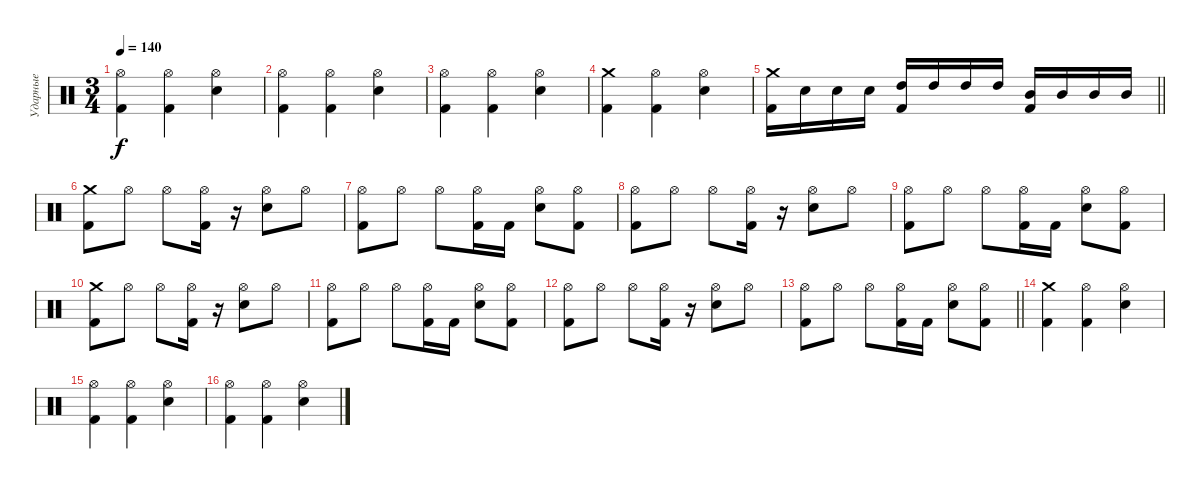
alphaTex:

\track ("Ударные" "Ударные") {instrument percussion}
\staff {score}
\articulation defaults
\ts (3 4)
\tempo 140
\clef neutral
\ks c
("Kick (hit) 2" "Hi-Hat (open)").4{dy f} ("Kick (hit) 2" "Hi-Hat (open)").4 ("Hi-Hat (open)" "Electric Snare (hit)").4 |
("Kick (hit) 2" "Hi-Hat (open)").4 ("Kick (hit) 2" "Hi-Hat (open)").4 ("Hi-Hat (open)" "Electric Snare (hit)").4 |
("Kick (hit) 2" "Hi-Hat (open)").4 ("Kick (hit) 2" "Hi-Hat (open)").4 ("Hi-Hat (open)" "Electric Snare (hit)").4 |
("Kick (hit) 2" "Crash medium (hit)").4 ("Kick (hit) 2" "Hi-Hat (open)").4 ("Hi-Hat (open)" "Electric Snare (hit)").4 |
\barLineRight lightlight
("Kick (hit) 2" "Crash medium (hit)").16 "Electric Snare (hit)".16 "Electric Snare (hit)".16 "Electric Snare (hit)".16 ("Kick (hit) 2" "High Tom (hit)").16 "High Tom (hit)".16 "High Tom (hit)".16 "High Tom (hit)".16 ("Kick (hit) 2" "Mid Tom (hit)").16 "Mid Tom (hit)".16 "Mid Tom (hit)".16 "Mid Tom (hit)".16 |
("Kick (hit) 2" "Crash medium (hit)").8 "Hi-Hat (open)".8 "Hi-Hat (open)".8 ("Kick (hit) 2" "Hi-Hat (open)").16 r.16 ("Electric Snare (hit)" "Hi-Hat (open)").8 "Hi-Hat (open)".8 |
("Kick (hit) 2" "Hi-Hat (open)").8 "Hi-Hat (open)".8 "Hi-Hat (open)".8 ("Kick (hit) 2" "Hi-Hat (open)").16 "Kick (hit) 2".16 ("Electric Snare (hit)" "Hi-Hat (open)").8 ("Kick (hit) 2" "Hi-Hat (open)").8 |
("Kick (hit) 2" "Hi-Hat (open)").8 "Hi-Hat (open)".8 "Hi-Hat (open)".8 ("Kick (hit) 2" "Hi-Hat (open)").16 r.16 ("Electric Snare (hit)" "Hi-Hat (open)").8 "Hi-Hat (open)".8 |
("Kick (hit) 2" "Hi-Hat (open)").8 "Hi-Hat (open)".8 "Hi-Hat (open)".8 ("Kick (hit) 2" "Hi-Hat (open)").16 "Kick (hit) 2".16 ("Electric Snare (hit)" "Hi-Hat (open)").8 ("Kick (hit) 2" "Hi-Hat (open)").8 |
("Kick (hit) 2" "Crash medium (hit)").8 "Hi-Hat (open)".8 "Hi-Hat (open)".8 ("Kick (hit) 2" "Hi-Hat (open)").16 r.16 ("Electric Snare (hit)" "Hi-Hat (open)").8 "Hi-Hat (open)".8 |
("Kick (hit) 2" "Hi-Hat (open)").8 "Hi-Hat (open)".8 "Hi-Hat (open)".8 ("Kick (hit) 2" "Hi-Hat (open)").16 "Kick (hit) 2".16 ("Electric Snare (hit)" "Hi-Hat (open)").8 ("Kick (hit) 2" "Hi-Hat (open)").8 |
("Kick (hit) 2" "Hi-Hat (open)").8 "Hi-Hat (open)".8 "Hi-Hat (open)".8 ("Kick (hit) 2" "Hi-Hat (open)").16 r.16 ("Electric Snare (hit)" "Hi-Hat (open)").8 "Hi-Hat (open)".8 |
\barLineRight lightlight
("Kick (hit) 2" "Hi-Hat (open)").8 "Hi-Hat (open)".8 "Hi-Hat (open)".8 ("Kick (hit) 2" "Hi-Hat (open)").16 "Kick (hit) 2".16 ("Electric Snare (hit)" "Hi-Hat (open)").8 ("Kick (hit) 2" "Hi-Hat (open)").8 |
("Kick (hit) 2" "Crash medium (hit)").4 ("Kick (hit) 2" "Hi-Hat (open)").4 ("Hi-Hat (open)" "Electric Snare (hit)").4 |
("Kick (hit) 2" "Hi-Hat (open)").4 ("Kick (hit) 2" "Hi-Hat (open)").4 ("Hi-Hat (open)" "Electric Snare (hit)").4 |
("Kick (hit) 2" "Hi-Hat (open)").4 ("Kick (hit) 2" "Hi-Hat (open)").4 ("Hi-Hat (open)" "Electric Snare (hit)").4
